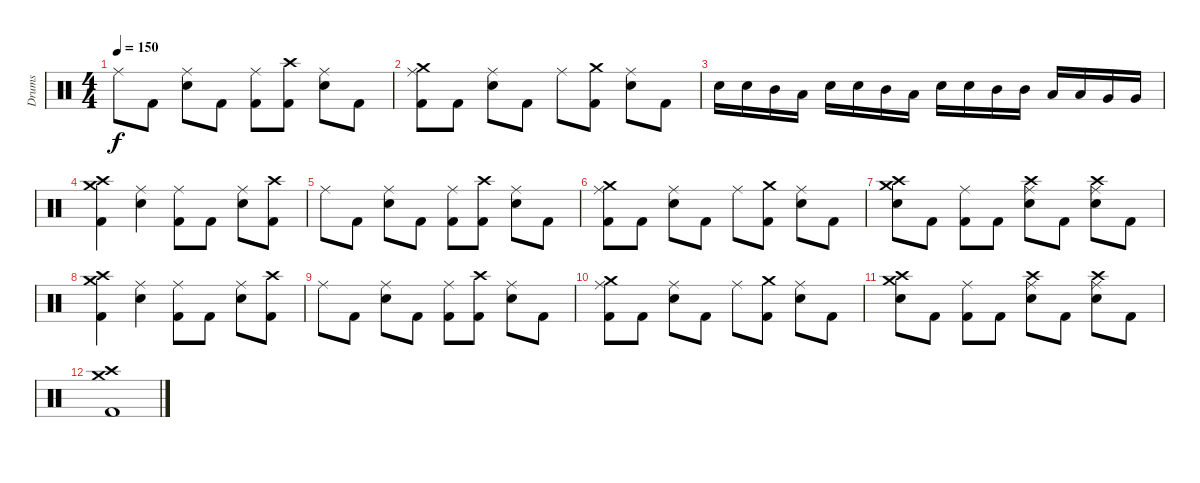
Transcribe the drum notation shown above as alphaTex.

\track ("Drums" "Drums") {instrument percussion}
\staff {score}
\articulation defaults
\ts (4 4)
\tempo 150
\clef neutral
\ks c "Ride (middle)".8{dy f} "Kick (hit) 2".8
("Ride (middle)" "Snare (hit) 2").8 "Kick (hit) 2".8 ("Ride (middle)" "Kick (hit) 2").8 ("Crash high (hit)" "Kick (hit) 2").8 ("Ride (middle)" "Snare (hit) 2").8 "Kick (hit) 2".8 |
("Crash medium (hit)" "Ride (middle)" "Kick (hit) 2").8 "Kick (hit) 2".8 ("Ride (middle)" "Snare (hit) 2").8 "Kick (hit) 2".8 "Ride (middle)".8 ("Crash medium (hit)" "Kick (hit) 2").8 ("Ride (middle)" "Snare (hit) 2").8 "Kick (hit) 2".8 |
"Snare (hit) 2".16 "Snare (hit) 2".16 "Mid Tom (hit)".16 "Low Tom (hit)".16 "Snare (hit) 2".16 "Snare (hit) 2".16 "Mid Tom (hit)".16 "Low Tom (hit)".16 "Snare (hit) 2".16 "Snare (hit) 2".16 "Mid Tom (hit)".16 "Mid Tom (hit)".16 "Low Tom (hit)".16 "Low Tom (hit)".16 "Very Low Tom (hit)".16 "Very Low Tom (hit)".16 |
("Crash medium (hit)" "Crash high (hit)" "Kick (hit) 2").4 ("Ride (middle)" "Snare (hit) 2").4 ("Ride (middle)" "Kick (hit) 2").8 "Kick (hit) 2".8 ("Ride (middle)" "Snare (hit) 2").8 ("Crash high (hit)" "Kick (hit) 2").8 |
"Ride (middle)".8 "Kick (hit) 2".8 ("Ride (middle)" "Snare (hit) 2").8 "Kick (hit) 2".8 ("Ride (middle)" "Kick (hit) 2").8 ("Crash high (hit)" "Kick (hit) 2").8 ("Ride (middle)" "Snare (hit) 2").8 "Kick (hit) 2".8 |
("Crash medium (hit)" "Ride (middle)" "Kick (hit) 2").8 "Kick (hit) 2".8 ("Ride (middle)" "Snare (hit) 2").8 "Kick (hit) 2".8 "Ride (middle)".8 ("Crash medium (hit)" "Kick (hit) 2").8 ("Ride (middle)" "Snare (hit) 2").8 "Kick (hit) 2".8 |
("Crash medium (hit)" "Crash high (hit)" "Snare (hit) 2").8 "Kick (hit) 2".8 ("Ride (middle)" "Kick (hit) 2").8 "Kick (hit) 2".8 ("Ride (middle)" "Crash high (hit)" "Snare (hit) 2").8 "Kick (hit) 2".8 ("Ride (middle)" "Crash high (hit)" "Snare (hit) 2").8 "Kick (hit) 2".8 |
("Crash medium (hit)" "Crash high (hit)" "Kick (hit) 2").4 ("Ride (middle)" "Snare (hit) 2").4 ("Ride (middle)" "Kick (hit) 2").8 "Kick (hit) 2".8 ("Ride (middle)" "Snare (hit) 2").8 ("Crash high (hit)" "Kick (hit) 2").8 |
"Ride (middle)".8 "Kick (hit) 2".8 ("Ride (middle)" "Snare (hit) 2").8 "Kick (hit) 2".8 ("Ride (middle)" "Kick (hit) 2").8 ("Crash high (hit)" "Kick (hit) 2").8 ("Ride (middle)" "Snare (hit) 2").8 "Kick (hit) 2".8 |
("Crash medium (hit)" "Ride (middle)" "Kick (hit) 2").8 "Kick (hit) 2".8 ("Ride (middle)" "Snare (hit) 2").8 "Kick (hit) 2".8 "Ride (middle)".8 ("Crash medium (hit)" "Kick (hit) 2").8 ("Ride (middle)" "Snare (hit) 2").8 "Kick (hit) 2".8 |
("Crash medium (hit)" "Crash high (hit)" "Snare (hit) 2").8 "Kick (hit) 2".8 ("Ride (middle)" "Kick (hit) 2").8 "Kick (hit) 2".8 ("Ride (middle)" "Crash high (hit)" "Snare (hit) 2").8 "Kick (hit) 2".8 ("Ride (middle)" "Crash high (hit)" "Snare (hit) 2").8 "Kick (hit) 2".8 |
("Crash high (hit)" "Crash medium (hit)" "Kick (hit) 2").1
